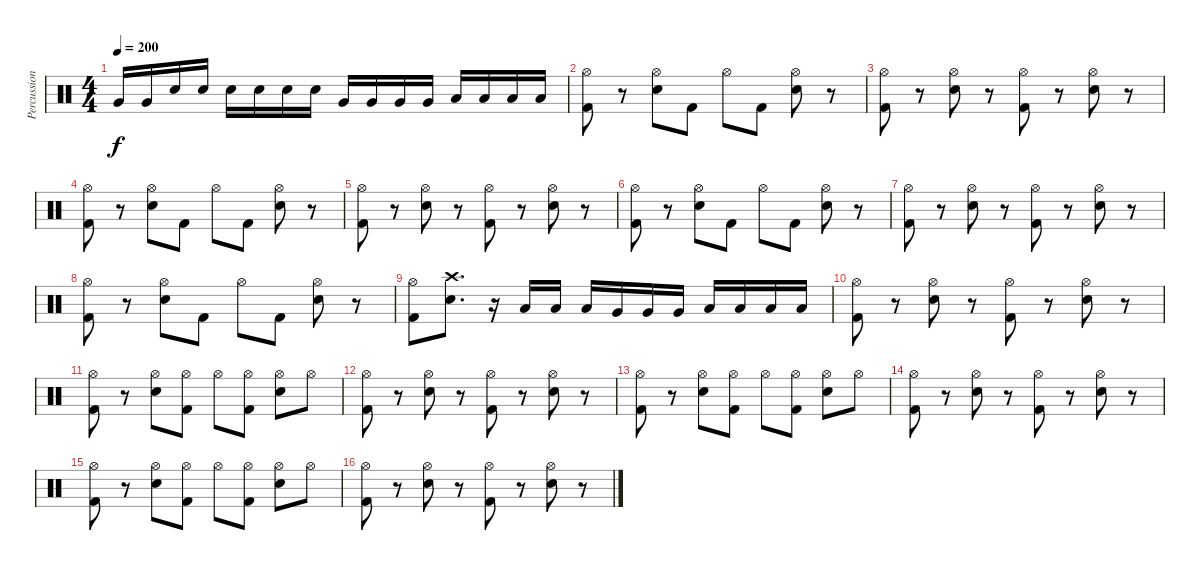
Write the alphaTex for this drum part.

\track ("Percussion" "Percussion") {instrument percussion}
\staff {score}
\articulation defaults
\ts (4 4)
\tempo 200
\clef neutral
\ks c "Very Low Tom (hit)".16{dy f} "Very Low Tom (hit)".16 "Electric Snare (hit)".16 "Electric Snare (hit)".16 "Electric Snare (hit)".16 "Electric Snare (hit)".16 "Electric Snare (hit)".16 "Electric Snare (hit)".16 "Very Low Tom (hit)".16 "Very Low Tom (hit)".16 "Very Low Tom (hit)".16 "Very Low Tom (hit)".16 "Low Floor Tom (hit)".16 "Low Floor Tom (hit)".16 "Low Floor Tom (hit)".16 "Low Floor Tom (hit)".16
|
("Hi-Hat (open)" "Kick (hit) 2").8 r.8 ("Hi-Hat (open)" "Electric Snare (hit)").8 "Kick (hit) 2".8 "Hi-Hat (open)".8 "Kick (hit) 2".8 ("Hi-Hat (open)" "Electric Snare (hit)").8 r.8 |
("Hi-Hat (open)" "Kick (hit) 2").8 r.8 ("Hi-Hat (open)" "Electric Snare (hit)").8 r.8 ("Hi-Hat (open)" "Kick (hit) 2").8 r.8 ("Hi-Hat (open)" "Electric Snare (hit)").8 r.8 |
("Hi-Hat (open)" "Kick (hit) 2").8 r.8 ("Hi-Hat (open)" "Electric Snare (hit)").8 "Kick (hit) 2".8 "Hi-Hat (open)".8 "Kick (hit) 2".8 ("Hi-Hat (open)" "Electric Snare (hit)").8 r.8 |
("Hi-Hat (open)" "Kick (hit) 2").8 r.8 ("Hi-Hat (open)" "Electric Snare (hit)").8 r.8 ("Hi-Hat (open)" "Kick (hit) 2").8 r.8 ("Hi-Hat (open)" "Electric Snare (hit)").8 r.8 |
("Hi-Hat (open)" "Kick (hit) 2").8 r.8 ("Hi-Hat (open)" "Electric Snare (hit)").8 "Kick (hit) 2".8 "Hi-Hat (open)".8 "Kick (hit) 2".8 ("Hi-Hat (open)" "Electric Snare (hit)").8 r.8 |
("Hi-Hat (open)" "Kick (hit) 2").8 r.8 ("Hi-Hat (open)" "Electric Snare (hit)").8 r.8 ("Hi-Hat (open)" "Kick (hit) 2").8 r.8 ("Hi-Hat (open)" "Electric Snare (hit)").8 r.8 |
("Hi-Hat (open)" "Kick (hit) 2").8 r.8 ("Hi-Hat (open)" "Electric Snare (hit)").8 "Kick (hit) 2".8 "Hi-Hat (open)".8 "Kick (hit) 2".8 ("Hi-Hat (open)" "Electric Snare (hit)").8 r.8 |
("Hi-Hat (open)" "Kick (hit) 2").8 ("Crash high (hit)" "Electric Snare (hit)").8{d} r.16 "Low Tom (hit)".16 "Low Tom (hit)".16 "Low Tom (hit)".16 "Very Low Tom (hit)".16 "Very Low Tom (hit)".16 "Very Low Tom (hit)".16 "Low Floor Tom (hit)".16 "Low Floor Tom (hit)".16 "Low Floor Tom (hit)".16 "Low Floor Tom (hit)".16 |
("Hi-Hat (open)" "Kick (hit) 2").8 r.8 ("Hi-Hat (open)" "Electric Snare (hit)").8 r.8 ("Hi-Hat (open)" "Kick (hit) 2").8 r.8 ("Hi-Hat (open)" "Electric Snare (hit)").8 r.8 |
("Hi-Hat (open)" "Kick (hit) 2").8 r.8 ("Hi-Hat (open)" "Electric Snare (hit)").8 ("Hi-Hat (open)" "Kick (hit) 2").8 "Hi-Hat (open)".8 ("Hi-Hat (open)" "Kick (hit) 2").8 ("Hi-Hat (open)" "Electric Snare (hit)").8 "Hi-Hat (open)".8 |
("Hi-Hat (open)" "Kick (hit) 2").8 r.8 ("Hi-Hat (open)" "Electric Snare (hit)").8 r.8 ("Hi-Hat (open)" "Kick (hit) 2").8 r.8 ("Hi-Hat (open)" "Electric Snare (hit)").8 r.8 |
("Hi-Hat (open)" "Kick (hit) 2").8 r.8 ("Hi-Hat (open)" "Electric Snare (hit)").8 ("Hi-Hat (open)" "Kick (hit) 2").8 "Hi-Hat (open)".8 ("Hi-Hat (open)" "Kick (hit) 2").8 ("Hi-Hat (open)" "Electric Snare (hit)").8 "Hi-Hat (open)".8 |
("Hi-Hat (open)" "Kick (hit) 2").8 r.8 ("Hi-Hat (open)" "Electric Snare (hit)").8 r.8 ("Hi-Hat (open)" "Kick (hit) 2").8 r.8 ("Hi-Hat (open)" "Electric Snare (hit)").8 r.8 |
("Hi-Hat (open)" "Kick (hit) 2").8 r.8 ("Hi-Hat (open)" "Electric Snare (hit)").8 ("Hi-Hat (open)" "Kick (hit) 2").8 "Hi-Hat (open)".8 ("Hi-Hat (open)" "Kick (hit) 2").8 ("Hi-Hat (open)" "Electric Snare (hit)").8 "Hi-Hat (open)".8 |
("Hi-Hat (open)" "Kick (hit) 2").8 r.8 ("Hi-Hat (open)" "Electric Snare (hit)").8 r.8 ("Hi-Hat (open)" "Kick (hit) 2").8 r.8 ("Hi-Hat (open)" "Electric Snare (hit)").8 r.8
